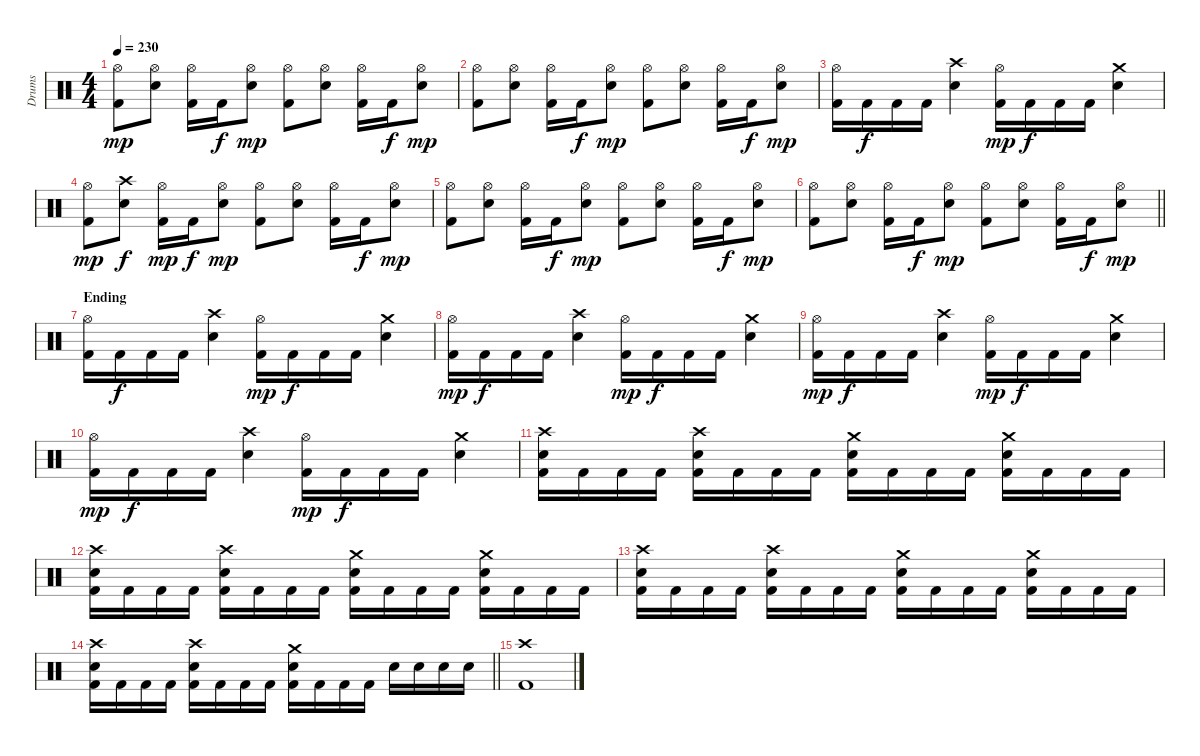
\track ("Drums" "Drums") {instrument percussion}
\staff {score}
\articulation defaults
\ts (4 4)
\tempo 230
\clef neutral
\ks c
("Hi-Hat (open)" "Kick (hit) 2").8{dy mp} ("Hi-Hat (open)" "Snare (hit) 2").8 ("Hi-Hat (open)" "Kick (hit) 2").16 "Kick (hit) 2".16{dy f} ("Hi-Hat (open)" "Snare (hit) 2").8{dy mp} ("Hi-Hat (open)" "Kick (hit) 2").8 ("Hi-Hat (open)" "Snare (hit) 2").8 ("Hi-Hat (open)" "Kick (hit) 2").16 "Kick (hit) 2".16{dy f} ("Hi-Hat (open)" "Snare (hit) 2").8{dy mp} |
("Hi-Hat (open)" "Kick (hit) 2").8 ("Hi-Hat (open)" "Snare (hit) 2").8 ("Hi-Hat (open)" "Kick (hit) 2").16 "Kick (hit) 2".16{dy f} ("Hi-Hat (open)" "Snare (hit) 2").8{dy mp} ("Hi-Hat (open)" "Kick (hit) 2").8 ("Hi-Hat (open)" "Snare (hit) 2").8 ("Hi-Hat (open)" "Kick (hit) 2").16 "Kick (hit) 2".16{dy f} ("Hi-Hat (open)" "Snare (hit) 2").8{dy mp} |
("Hi-Hat (open)" "Kick (hit) 2").16 "Kick (hit) 2".16{dy f} "Kick (hit) 2".16 "Kick (hit) 2".16 ("Crash high (hit)" "Snare (hit) 2").4 ("Hi-Hat (open)" "Kick (hit) 2").16{dy mp} "Kick (hit) 2".16{dy f} "Kick (hit) 2".16 "Kick (hit) 2".16 ("Crash medium (hit)" "Snare (hit) 2").4 |
("Hi-Hat (open)" "Kick (hit) 2").8{dy mp} ("Crash high (hit)" "Snare (hit) 2").8{dy f} ("Hi-Hat (open)" "Kick (hit) 2").16{dy mp} "Kick (hit) 2".16{dy f} ("Hi-Hat (open)" "Snare (hit) 2").8{dy mp} ("Hi-Hat (open)" "Kick (hit) 2").8 ("Hi-Hat (open)" "Snare (hit) 2").8 ("Hi-Hat (open)" "Kick (hit) 2").16 "Kick (hit) 2".16{dy f} ("Hi-Hat (open)" "Snare (hit) 2").8{dy mp} |
("Hi-Hat (open)" "Kick (hit) 2").8 ("Hi-Hat (open)" "Snare (hit) 2").8 ("Hi-Hat (open)" "Kick (hit) 2").16 "Kick (hit) 2".16{dy f} ("Hi-Hat (open)" "Snare (hit) 2").8{dy mp} ("Hi-Hat (open)" "Kick (hit) 2").8 ("Hi-Hat (open)" "Snare (hit) 2").8 ("Hi-Hat (open)" "Kick (hit) 2").16 "Kick (hit) 2".16{dy f} ("Hi-Hat (open)" "Snare (hit) 2").8{dy mp} |
\barLineRight lightlight
("Hi-Hat (open)" "Kick (hit) 2").8 ("Hi-Hat (open)" "Snare (hit) 2").8 ("Hi-Hat (open)" "Kick (hit) 2").16 "Kick (hit) 2".16{dy f} ("Hi-Hat (open)" "Snare (hit) 2").8{dy mp} ("Hi-Hat (open)" "Kick (hit) 2").8 ("Hi-Hat (open)" "Snare (hit) 2").8 ("Hi-Hat (open)" "Kick (hit) 2").16 "Kick (hit) 2".16{dy f} ("Hi-Hat (open)" "Snare (hit) 2").8{dy mp} |
\section ("" "Ending")
("Hi-Hat (open)" "Kick (hit) 2").16 "Kick (hit) 2".16{dy f} "Kick (hit) 2".16 "Kick (hit) 2".16 ("Crash high (hit)" "Snare (hit) 2").4 ("Hi-Hat (open)" "Kick (hit) 2").16{dy mp} "Kick (hit) 2".16{dy f} "Kick (hit) 2".16 "Kick (hit) 2".16 ("Crash medium (hit)" "Snare (hit) 2").4 |
("Hi-Hat (open)" "Kick (hit) 2").16{dy mp} "Kick (hit) 2".16{dy f} "Kick (hit) 2".16 "Kick (hit) 2".16 ("Crash high (hit)" "Snare (hit) 2").4 ("Hi-Hat (open)" "Kick (hit) 2").16{dy mp} "Kick (hit) 2".16{dy f} "Kick (hit) 2".16 "Kick (hit) 2".16 ("Crash medium (hit)" "Snare (hit) 2").4 |
("Hi-Hat (open)" "Kick (hit) 2").16{dy mp} "Kick (hit) 2".16{dy f} "Kick (hit) 2".16 "Kick (hit) 2".16 ("Crash high (hit)" "Snare (hit) 2").4 ("Hi-Hat (open)" "Kick (hit) 2").16{dy mp} "Kick (hit) 2".16{dy f} "Kick (hit) 2".16 "Kick (hit) 2".16 ("Crash medium (hit)" "Snare (hit) 2").4 |
("Hi-Hat (open)" "Kick (hit) 2").16{dy mp} "Kick (hit) 2".16{dy f} "Kick (hit) 2".16 "Kick (hit) 2".16 ("Crash high (hit)" "Snare (hit) 2").4 ("Hi-Hat (open)" "Kick (hit) 2").16{dy mp} "Kick (hit) 2".16{dy f} "Kick (hit) 2".16 "Kick (hit) 2".16 ("Crash medium (hit)" "Snare (hit) 2").4 |
("Crash high (hit)" "Snare (hit) 2" "Kick (hit) 2").16 "Kick (hit) 2".16 "Kick (hit) 2".16 "Kick (hit) 2".16 ("Crash high (hit)" "Snare (hit) 2" "Kick (hit) 2").16 "Kick (hit) 2".16 "Kick (hit) 2".16 "Kick (hit) 2".16 ("Crash medium (hit)" "Snare (hit) 2" "Kick (hit) 2").16 "Kick (hit) 2".16 "Kick (hit) 2".16 "Kick (hit) 2".16 ("Crash medium (hit)" "Snare (hit) 2" "Kick (hit) 2").16 "Kick (hit) 2".16 "Kick (hit) 2".16 "Kick (hit) 2".16 |
("Crash high (hit)" "Snare (hit) 2" "Kick (hit) 2").16 "Kick (hit) 2".16 "Kick (hit) 2".16 "Kick (hit) 2".16 ("Crash high (hit)" "Snare (hit) 2" "Kick (hit) 2").16 "Kick (hit) 2".16 "Kick (hit) 2".16 "Kick (hit) 2".16 ("Crash medium (hit)" "Snare (hit) 2" "Kick (hit) 2").16 "Kick (hit) 2".16 "Kick (hit) 2".16 "Kick (hit) 2".16 ("Crash medium (hit)" "Snare (hit) 2" "Kick (hit) 2").16 "Kick (hit) 2".16 "Kick (hit) 2".16 "Kick (hit) 2".16 |
("Crash high (hit)" "Snare (hit) 2" "Kick (hit) 2").16 "Kick (hit) 2".16 "Kick (hit) 2".16 "Kick (hit) 2".16 ("Crash high (hit)" "Snare (hit) 2" "Kick (hit) 2").16 "Kick (hit) 2".16 "Kick (hit) 2".16 "Kick (hit) 2".16 ("Crash medium (hit)" "Snare (hit) 2" "Kick (hit) 2").16 "Kick (hit) 2".16 "Kick (hit) 2".16 "Kick (hit) 2".16 ("Crash medium (hit)" "Snare (hit) 2" "Kick (hit) 2").16 "Kick (hit) 2".16 "Kick (hit) 2".16 "Kick (hit) 2".16 |
\barLineRight lightlight
("Crash high (hit)" "Snare (hit) 2" "Kick (hit) 2").16 "Kick (hit) 2".16 "Kick (hit) 2".16 "Kick (hit) 2".16 ("Crash high (hit)" "Snare (hit) 2" "Kick (hit) 2").16 "Kick (hit) 2".16 "Kick (hit) 2".16 "Kick (hit) 2".16 ("Crash medium (hit)" "Snare (hit) 2" "Kick (hit) 2").16 "Kick (hit) 2".16 "Kick (hit) 2".16 "Kick (hit) 2".16 "Snare (hit) 2".16 "Snare (hit) 2".16 "Snare (hit) 2".16 "Snare (hit) 2".16 |
("Crash high (hit)" "Kick (hit) 2").1
